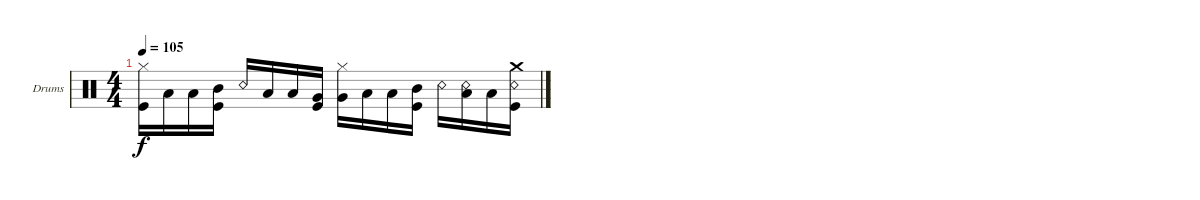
\defaultSystemsLayout 4
\bracketExtendMode groupsimilarinstruments
\firstSystemTrackNameOrientation horizontal
\otherSystemsTrackNameOrientation horizontal
\track ("Drumkit" "Drums") {instrument percussion}
\staff {score}
\articulation defaults
\ts (4 4)
\tempo 105
\clef neutral
\ks c
("Kick (hit)" "Hi-Hat (closed)").16{dy f} "Low Tom (hit)".16 "Low Tom (hit)".16 ("Mid Tom (hit)" "Kick (hit)").16 "Snare (rim shot)".16 "Low Tom (hit)".16 "Low Tom (hit)".16 ("Very Low Tom (hit)" "Kick (hit)").16 ("Very Low Tom (hit)" "Hi-Hat (closed)").16 "Low Tom (hit)".16 "Low Tom (hit)".16 ("Mid Tom (hit)" "Kick (hit)").16 "Snare (rim shot)".16 ("Low Tom (hit)" "Snare (rim shot)").16 "Low Tom (hit)".16 ("Kick (hit)" "Snare (rim shot)" "Crash medium (hit)").16
